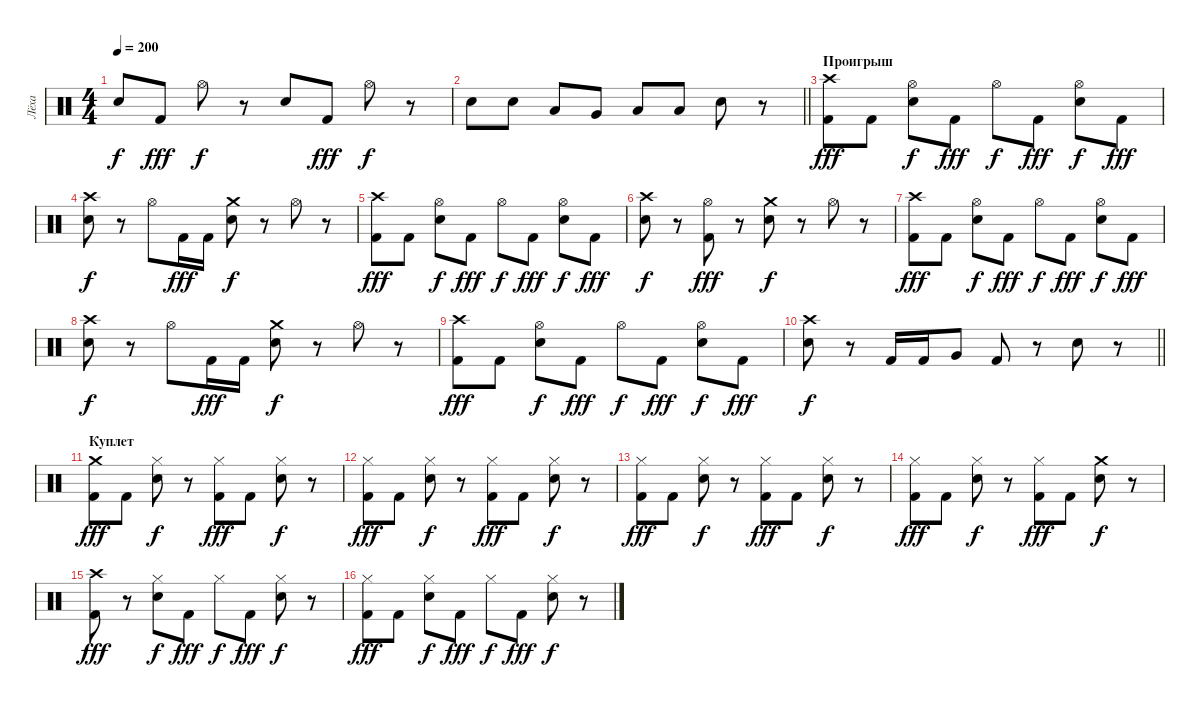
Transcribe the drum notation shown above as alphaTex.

\track ("Лёха" "Лёха") {instrument percussion}
\staff {score}
\articulation defaults
\ts (4 4)
\tempo 200
\clef neutral
\ks c "Electric Snare (hit)".8{dy f} "Kick (hit) 2".8{dy fff} "Hi-Hat (open)".8{dy f}
r.8 "Electric Snare (hit)".8 "Kick (hit) 2".8{dy fff} "Hi-Hat (open)".8{dy f} r.8 |
\barLineRight lightlight "Electric Snare (hit)".8 "Electric Snare (hit)".8 "Low Tom (hit)".8 "Very Low Tom (hit)".8 "Low Floor Tom (hit)".8 "Low Floor Tom (hit)".8 "Electric Snare (hit)".8
r.8 |
\section ("" "Проигрыш")
("Crash high (hit)" "Kick (hit) 2").8{dy fff} "Kick (hit) 2".8 ("Hi-Hat (open)" "Electric Snare (hit)").8{dy f} "Kick (hit) 2".8{dy fff} "Hi-Hat (open)".8{dy f} "Kick (hit) 2".8{dy fff} ("Hi-Hat (open)" "Electric Snare (hit)").8{dy f} "Kick (hit) 2".8{dy fff} |
("Crash high (hit)" "Electric Snare (hit)").8{dy f} r.8 "Hi-Hat (open)".8 "Kick (hit) 2".16{dy fff} "Kick (hit) 2".16 ("Crash medium (hit)" "Electric Snare (hit)").8{dy f} r.8 "Hi-Hat (open)".8 r.8 |
("Crash high (hit)" "Kick (hit) 2").8{dy fff} "Kick (hit) 2".8 ("Hi-Hat (open)" "Electric Snare (hit)").8{dy f} "Kick (hit) 2".8{dy fff} "Hi-Hat (open)".8{dy f} "Kick (hit) 2".8{dy fff} ("Hi-Hat (open)" "Electric Snare (hit)").8{dy f} "Kick (hit) 2".8{dy fff} |
("Crash high (hit)" "Electric Snare (hit)").8{dy f} r.8 ("Hi-Hat (open)" "Kick (hit) 2").8{dy fff} r.8 ("Crash medium (hit)" "Electric Snare (hit)").8{dy f} r.8 "Hi-Hat (open)".8 r.8 |
("Crash high (hit)" "Kick (hit) 2").8{dy fff} "Kick (hit) 2".8 ("Hi-Hat (open)" "Electric Snare (hit)").8{dy f} "Kick (hit) 2".8{dy fff} "Hi-Hat (open)".8{dy f} "Kick (hit) 2".8{dy fff} ("Hi-Hat (open)" "Electric Snare (hit)").8{dy f} "Kick (hit) 2".8{dy fff} |
("Crash high (hit)" "Electric Snare (hit)").8{dy f} r.8 "Hi-Hat (open)".8 "Kick (hit) 2".16{dy fff} "Kick (hit) 2".16 ("Crash medium (hit)" "Electric Snare (hit)").8{dy f} r.8 "Hi-Hat (open)".8 r.8 |
("Crash high (hit)" "Kick (hit) 2").8{dy fff} "Kick (hit) 2".8 ("Hi-Hat (open)" "Electric Snare (hit)").8{dy f} "Kick (hit) 2".8{dy fff} "Hi-Hat (open)".8{dy f} "Kick (hit) 2".8{dy fff} ("Hi-Hat (open)" "Electric Snare (hit)").8{dy f} "Kick (hit) 2".8{dy fff} |
\barLineRight lightlight
("Crash high (hit)" "Electric Snare (hit)").8{dy f} r.8 "Kick (hit) 2".16 "Kick (hit) 2".16 "Very Low Tom (hit)".8 "Kick (hit) 2".8 r.8 "Electric Snare (hit)".8 r.8 |
\section ("" "Куплет")
("Crash medium (hit)" "Kick (hit) 2").8{dy fff} "Kick (hit) 2".8 ("Hi-Hat (closed)" "Electric Snare (hit)").8{dy f} r.8 ("Hi-Hat (closed)" "Kick (hit) 2").8{dy fff} "Kick (hit) 2".8 ("Hi-Hat (closed)" "Electric Snare (hit)").8{dy f} r.8 |
("Hi-Hat (closed)" "Kick (hit) 2").8{dy fff} "Kick (hit) 2".8 ("Hi-Hat (closed)" "Electric Snare (hit)").8{dy f} r.8 ("Hi-Hat (closed)" "Kick (hit) 2").8{dy fff} "Kick (hit) 2".8 ("Hi-Hat (closed)" "Electric Snare (hit)").8{dy f} r.8 |
("Hi-Hat (closed)" "Kick (hit) 2").8{dy fff} "Kick (hit) 2".8 ("Hi-Hat (closed)" "Electric Snare (hit)").8{dy f} r.8 ("Hi-Hat (closed)" "Kick (hit) 2").8{dy fff} "Kick (hit) 2".8 ("Hi-Hat (closed)" "Electric Snare (hit)").8{dy f} r.8 |
("Hi-Hat (closed)" "Kick (hit) 2").8{dy fff} "Kick (hit) 2".8 ("Hi-Hat (closed)" "Electric Snare (hit)").8{dy f} r.8 ("Hi-Hat (closed)" "Kick (hit) 2").8{dy fff} "Kick (hit) 2".8 ("Crash medium (hit)" "Electric Snare (hit)").8{dy f} r.8 |
("Crash high (hit)" "Kick (hit) 2").8{dy fff} r.8 ("Hi-Hat (closed)" "Electric Snare (hit)").8{dy f} "Kick (hit) 2".8{dy fff} "Hi-Hat (closed)".8{dy f} "Kick (hit) 2".8{dy fff} ("Hi-Hat (closed)" "Electric Snare (hit)").8{dy f} r.8 |
("Hi-Hat (closed)" "Kick (hit) 2").8{dy fff} "Kick (hit) 2".8 ("Hi-Hat (closed)" "Electric Snare (hit)").8{dy f} "Kick (hit) 2".8{dy fff} "Hi-Hat (closed)".8{dy f} "Kick (hit) 2".8{dy fff} ("Hi-Hat (closed)" "Electric Snare (hit)").8{dy f} r.8
